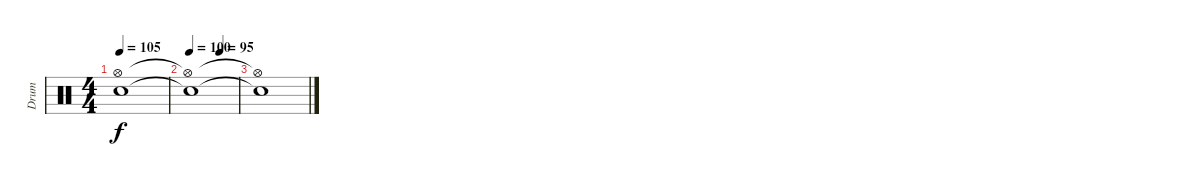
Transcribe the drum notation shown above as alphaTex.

\track ("Drum" "Drum") {instrument percussion}
\staff {score}
\articulation defaults
\ts (4 4)
\tempo 105
\clef neutral
\ks c
("Electric Snare (hit)"{t} "Hi-Hat (open)"{t}).1{dy f} |
\tempo 100
\tempo (95 0.625)
("Electric Snare (hit)"{t} "Hi-Hat (open)"{t}).1 |
("Electric Snare (hit)"{t} "Hi-Hat (open)"{t}).1
